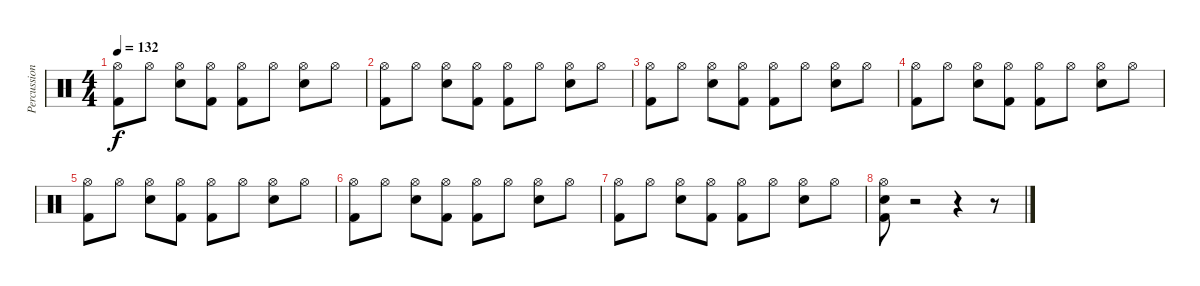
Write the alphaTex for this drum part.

\track ("Percussions" "Percussion") {instrument percussion}
\staff {score}
\articulation defaults
\ts (4 4)
\tempo 132
\clef neutral
\ks c
("Hi-Hat (open)" "Kick (hit) 2").8{dy f} "Hi-Hat (open)".8 ("Hi-Hat (open)" "Snare (hit) 2").8 ("Hi-Hat (open)" "Kick (hit) 2").8 ("Hi-Hat (open)" "Kick (hit) 2").8 "Hi-Hat (open)".8 ("Hi-Hat (open)" "Snare (hit) 2").8 "Hi-Hat (open)".8 |
("Hi-Hat (open)" "Kick (hit) 2").8 "Hi-Hat (open)".8 ("Hi-Hat (open)" "Snare (hit) 2").8 ("Hi-Hat (open)" "Kick (hit) 2").8 ("Hi-Hat (open)" "Kick (hit) 2").8 "Hi-Hat (open)".8 ("Hi-Hat (open)" "Snare (hit) 2").8 "Hi-Hat (open)".8 |
("Hi-Hat (open)" "Kick (hit) 2").8 "Hi-Hat (open)".8 ("Hi-Hat (open)" "Snare (hit) 2").8 ("Hi-Hat (open)" "Kick (hit) 2").8 ("Hi-Hat (open)" "Kick (hit) 2").8 "Hi-Hat (open)".8 ("Hi-Hat (open)" "Snare (hit) 2").8 "Hi-Hat (open)".8 |
("Hi-Hat (open)" "Kick (hit) 2").8 "Hi-Hat (open)".8 ("Hi-Hat (open)" "Snare (hit) 2").8 ("Hi-Hat (open)" "Kick (hit) 2").8 ("Hi-Hat (open)" "Kick (hit) 2").8 "Hi-Hat (open)".8 ("Hi-Hat (open)" "Snare (hit) 2").8 "Hi-Hat (open)".8 |
("Hi-Hat (open)" "Kick (hit) 2").8 "Hi-Hat (open)".8 ("Hi-Hat (open)" "Snare (hit) 2").8 ("Hi-Hat (open)" "Kick (hit) 2").8 ("Hi-Hat (open)" "Kick (hit) 2").8 "Hi-Hat (open)".8 ("Hi-Hat (open)" "Snare (hit) 2").8 "Hi-Hat (open)".8 |
("Hi-Hat (open)" "Kick (hit) 2").8 "Hi-Hat (open)".8 ("Hi-Hat (open)" "Snare (hit) 2").8 ("Hi-Hat (open)" "Kick (hit) 2").8 ("Hi-Hat (open)" "Kick (hit) 2").8 "Hi-Hat (open)".8 ("Hi-Hat (open)" "Snare (hit) 2").8 "Hi-Hat (open)".8 |
("Hi-Hat (open)" "Kick (hit) 2").8 "Hi-Hat (open)".8 ("Hi-Hat (open)" "Snare (hit) 2").8 ("Hi-Hat (open)" "Kick (hit) 2").8 ("Hi-Hat (open)" "Kick (hit) 2").8 "Hi-Hat (open)".8 ("Hi-Hat (open)" "Snare (hit) 2").8 "Hi-Hat (open)".8 |
("Hi-Hat (open)" "Snare (hit) 2" "Kick (hit) 2").8 r.2 r.4 r.8
